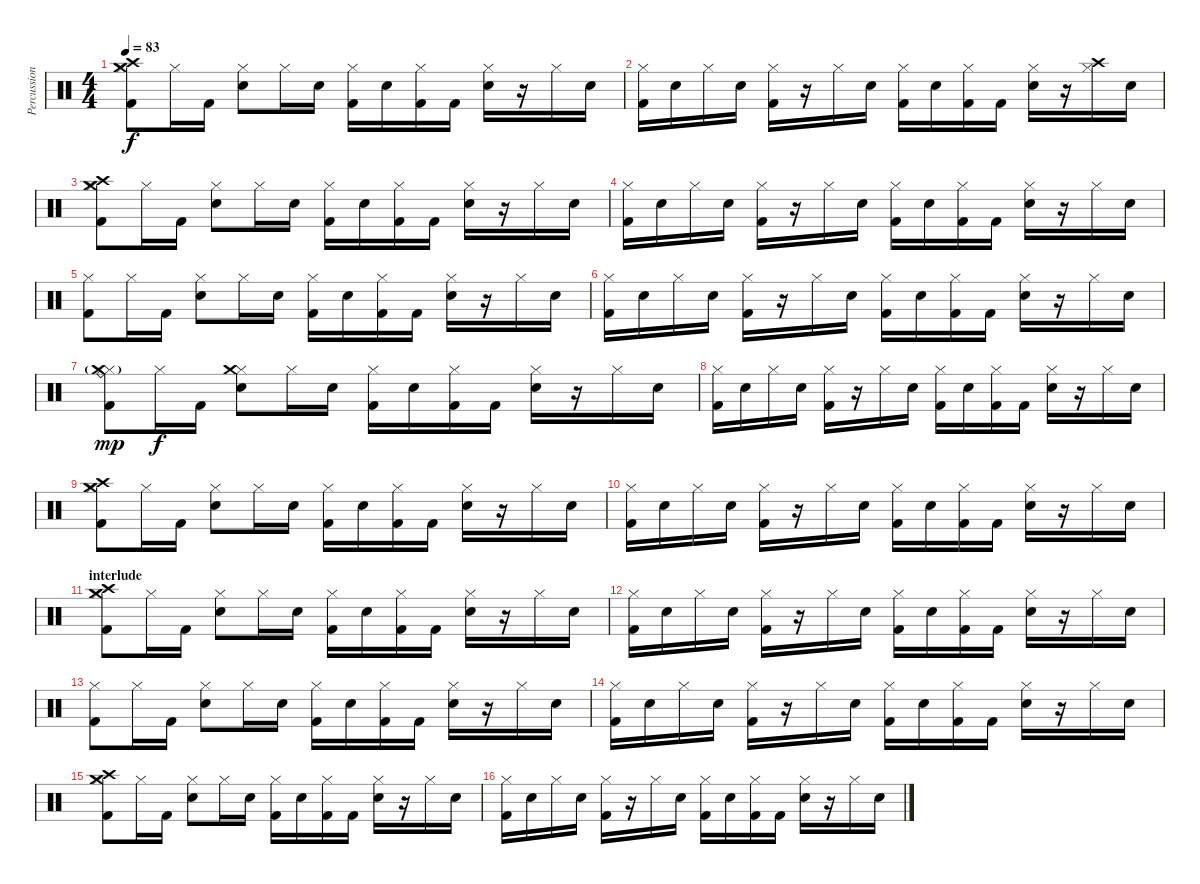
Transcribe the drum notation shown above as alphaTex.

\track ("Percussions" "Percussion") {instrument percussion}
\staff {score}
\articulation defaults
\ts (4 4)
\tempo 83
\clef neutral
\ks c
("Hi-Hat (closed)" "Kick (hit) 2" "Crash high (hit)" "Crash medium (hit)").8{dy f} "Hi-Hat (closed)".16 "Kick (hit) 2".16 ("Hi-Hat (closed)" "Snare (hit) 2").8 "Hi-Hat (closed)".16 "Snare (hit) 2".16 ("Hi-Hat (closed)" "Kick (hit) 2").16 "Snare (hit) 2".16 ("Hi-Hat (closed)" "Kick (hit) 2").16 "Kick (hit) 2".16 ("Hi-Hat (closed)" "Snare (hit) 2").16 r.16 "Hi-Hat (closed)".16 "Snare (hit) 2".16 |
("Hi-Hat (closed)" "Kick (hit) 2").16 "Snare (hit) 2".16 "Hi-Hat (closed)".16 "Snare (hit) 2".16 ("Hi-Hat (closed)" "Kick (hit) 2").16 r.16 "Hi-Hat (closed)".16 "Snare (hit) 2".16 ("Hi-Hat (closed)" "Kick (hit) 2").16 "Snare (hit) 2".16 ("Hi-Hat (closed)" "Kick (hit) 2").16 "Kick (hit) 2".16 ("Hi-Hat (closed)" "Snare (hit) 2").16 r.16 ("Hi-Hat (closed)" "Crash high (hit)").16 "Snare (hit) 2".16 |
("Hi-Hat (closed)" "Kick (hit) 2" "Crash high (hit)" "Crash medium (hit)").8 "Hi-Hat (closed)".16 "Kick (hit) 2".16 ("Hi-Hat (closed)" "Snare (hit) 2").8 "Hi-Hat (closed)".16 "Snare (hit) 2".16 ("Hi-Hat (closed)" "Kick (hit) 2").16 "Snare (hit) 2".16 ("Hi-Hat (closed)" "Kick (hit) 2").16 "Kick (hit) 2".16 ("Hi-Hat (closed)" "Snare (hit) 2").16 r.16 "Hi-Hat (closed)".16 "Snare (hit) 2".16 |
("Hi-Hat (closed)" "Kick (hit) 2").16 "Snare (hit) 2".16 "Hi-Hat (closed)".16 "Snare (hit) 2".16 ("Hi-Hat (closed)" "Kick (hit) 2").16 r.16 "Hi-Hat (closed)".16 "Snare (hit) 2".16 ("Hi-Hat (closed)" "Kick (hit) 2").16 "Snare (hit) 2".16 ("Hi-Hat (closed)" "Kick (hit) 2").16 "Kick (hit) 2".16 ("Hi-Hat (closed)" "Snare (hit) 2").16 r.16 "Hi-Hat (closed)".16 "Snare (hit) 2".16 |
("Hi-Hat (closed)" "Kick (hit) 2").8 "Hi-Hat (closed)".16 "Kick (hit) 2".16 ("Hi-Hat (closed)" "Snare (hit) 2").8 "Hi-Hat (closed)".16 "Snare (hit) 2".16 ("Hi-Hat (closed)" "Kick (hit) 2").16 "Snare (hit) 2".16 ("Hi-Hat (closed)" "Kick (hit) 2").16 "Kick (hit) 2".16 ("Hi-Hat (closed)" "Snare (hit) 2").16 r.16 "Hi-Hat (closed)".16 "Snare (hit) 2".16 |
("Hi-Hat (closed)" "Kick (hit) 2").16 "Snare (hit) 2".16 "Hi-Hat (closed)".16 "Snare (hit) 2".16 ("Hi-Hat (closed)" "Kick (hit) 2").16 r.16 "Hi-Hat (closed)".16 "Snare (hit) 2".16 ("Hi-Hat (closed)" "Kick (hit) 2").16 "Snare (hit) 2".16 ("Hi-Hat (closed)" "Kick (hit) 2").16 "Kick (hit) 2".16 ("Hi-Hat (closed)" "Snare (hit) 2").16 r.16 "Hi-Hat (closed)".16 "Snare (hit) 2".16 |
("Hi-Hat (closed)" "Kick (hit) 2" "Crash medium (hit)"{g} "Ride (bell)").8{dy mp} "Hi-Hat (closed)".16{dy f} "Kick (hit) 2".16 ("Hi-Hat (closed)" "Snare (hit) 2" "Crash medium (hit)").8 "Hi-Hat (closed)".16 "Snare (hit) 2".16 ("Hi-Hat (closed)" "Kick (hit) 2").16 "Snare (hit) 2".16 ("Hi-Hat (closed)" "Kick (hit) 2").16 "Kick (hit) 2".16 ("Hi-Hat (closed)" "Snare (hit) 2").16 r.16 "Hi-Hat (closed)".16 "Snare (hit) 2".16 |
("Hi-Hat (closed)" "Kick (hit) 2").16 "Snare (hit) 2".16 "Hi-Hat (closed)".16 "Snare (hit) 2".16 ("Hi-Hat (closed)" "Kick (hit) 2").16 r.16 "Hi-Hat (closed)".16 "Snare (hit) 2".16 ("Hi-Hat (closed)" "Kick (hit) 2").16 "Snare (hit) 2".16 ("Hi-Hat (closed)" "Kick (hit) 2").16 "Kick (hit) 2".16 ("Hi-Hat (closed)" "Snare (hit) 2").16 r.16 "Hi-Hat (closed)".16 "Snare (hit) 2".16 |
("Hi-Hat (closed)" "Kick (hit) 2" "Crash high (hit)" "Crash medium (hit)").8 "Hi-Hat (closed)".16 "Kick (hit) 2".16 ("Hi-Hat (closed)" "Snare (hit) 2").8 "Hi-Hat (closed)".16 "Snare (hit) 2".16 ("Hi-Hat (closed)" "Kick (hit) 2").16 "Snare (hit) 2".16 ("Hi-Hat (closed)" "Kick (hit) 2").16 "Kick (hit) 2".16 ("Hi-Hat (closed)" "Snare (hit) 2").16 r.16 "Hi-Hat (closed)".16 "Snare (hit) 2".16 |
("Hi-Hat (closed)" "Kick (hit) 2").16 "Snare (hit) 2".16 "Hi-Hat (closed)".16 "Snare (hit) 2".16 ("Hi-Hat (closed)" "Kick (hit) 2").16 r.16 "Hi-Hat (closed)".16 "Snare (hit) 2".16 ("Hi-Hat (closed)" "Kick (hit) 2").16 "Snare (hit) 2".16 ("Hi-Hat (closed)" "Kick (hit) 2").16 "Kick (hit) 2".16 ("Hi-Hat (closed)" "Snare (hit) 2").16 r.16 "Hi-Hat (closed)".16 "Snare (hit) 2".16 |
\section ("" "interlude")
("Hi-Hat (closed)" "Kick (hit) 2" "Crash high (hit)" "Crash medium (hit)").8 "Hi-Hat (closed)".16 "Kick (hit) 2".16 ("Hi-Hat (closed)" "Snare (hit) 2").8 "Hi-Hat (closed)".16 "Snare (hit) 2".16 ("Hi-Hat (closed)" "Kick (hit) 2").16 "Snare (hit) 2".16 ("Hi-Hat (closed)" "Kick (hit) 2").16 "Kick (hit) 2".16 ("Hi-Hat (closed)" "Snare (hit) 2").16 r.16 "Hi-Hat (closed)".16 "Snare (hit) 2".16 |
("Hi-Hat (closed)" "Kick (hit) 2").16 "Snare (hit) 2".16 "Hi-Hat (closed)".16 "Snare (hit) 2".16 ("Hi-Hat (closed)" "Kick (hit) 2").16 r.16 "Hi-Hat (closed)".16 "Snare (hit) 2".16 ("Hi-Hat (closed)" "Kick (hit) 2").16 "Snare (hit) 2".16 ("Hi-Hat (closed)" "Kick (hit) 2").16 "Kick (hit) 2".16 ("Hi-Hat (closed)" "Snare (hit) 2").16 r.16 "Hi-Hat (closed)".16 "Snare (hit) 2".16 |
("Hi-Hat (closed)" "Kick (hit) 2").8 "Hi-Hat (closed)".16 "Kick (hit) 2".16 ("Hi-Hat (closed)" "Snare (hit) 2").8 "Hi-Hat (closed)".16 "Snare (hit) 2".16 ("Hi-Hat (closed)" "Kick (hit) 2").16 "Snare (hit) 2".16 ("Hi-Hat (closed)" "Kick (hit) 2").16 "Kick (hit) 2".16 ("Hi-Hat (closed)" "Snare (hit) 2").16 r.16 "Hi-Hat (closed)".16 "Snare (hit) 2".16 |
("Hi-Hat (closed)" "Kick (hit) 2").16 "Snare (hit) 2".16 "Hi-Hat (closed)".16 "Snare (hit) 2".16 ("Hi-Hat (closed)" "Kick (hit) 2").16 r.16 "Hi-Hat (closed)".16 "Snare (hit) 2".16 ("Hi-Hat (closed)" "Kick (hit) 2").16 "Snare (hit) 2".16 ("Hi-Hat (closed)" "Kick (hit) 2").16 "Kick (hit) 2".16 ("Hi-Hat (closed)" "Snare (hit) 2").16 r.16 "Hi-Hat (closed)".16 "Snare (hit) 2".16 |
("Hi-Hat (closed)" "Kick (hit) 2" "Crash high (hit)" "Crash medium (hit)").8 "Hi-Hat (closed)".16 "Kick (hit) 2".16 ("Hi-Hat (closed)" "Snare (hit) 2").8 "Hi-Hat (closed)".16 "Snare (hit) 2".16 ("Hi-Hat (closed)" "Kick (hit) 2").16 "Snare (hit) 2".16 ("Hi-Hat (closed)" "Kick (hit) 2").16 "Kick (hit) 2".16 ("Hi-Hat (closed)" "Snare (hit) 2").16 r.16 "Hi-Hat (closed)".16 "Snare (hit) 2".16 |
("Hi-Hat (closed)" "Kick (hit) 2").16 "Snare (hit) 2".16 "Hi-Hat (closed)".16 "Snare (hit) 2".16 ("Hi-Hat (closed)" "Kick (hit) 2").16 r.16 "Hi-Hat (closed)".16 "Snare (hit) 2".16 ("Hi-Hat (closed)" "Kick (hit) 2").16 "Snare (hit) 2".16 ("Hi-Hat (closed)" "Kick (hit) 2").16 "Kick (hit) 2".16 ("Hi-Hat (closed)" "Snare (hit) 2").16 r.16 "Hi-Hat (closed)".16 "Snare (hit) 2".16
